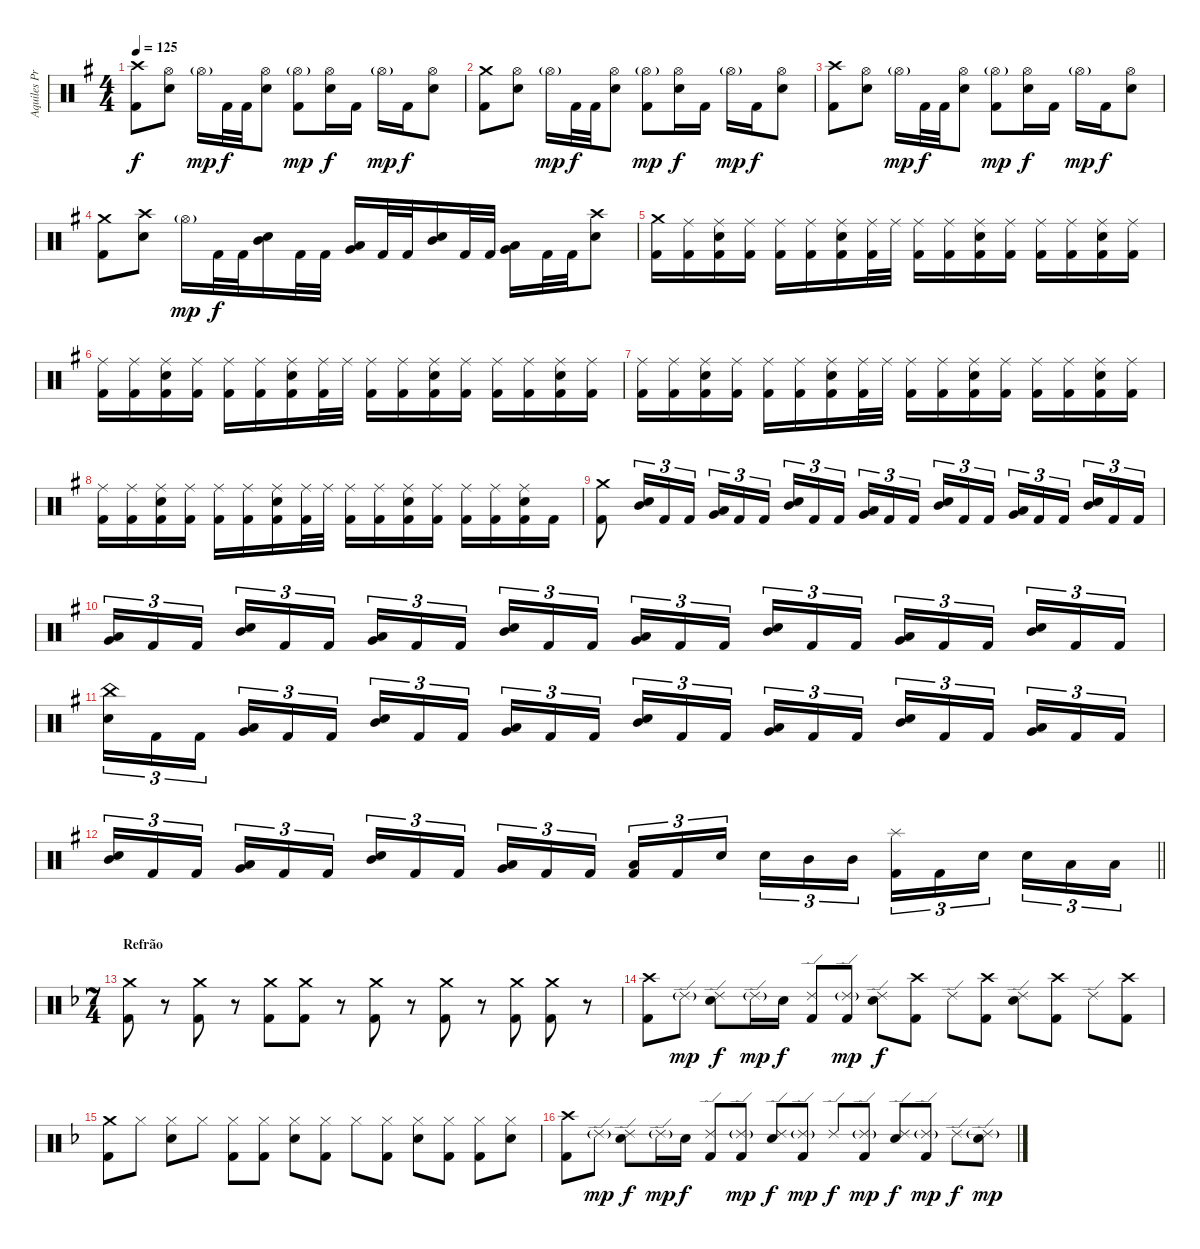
\track ("Aquiles Priester" "Aquiles Pr") {instrument percussion}
\staff {score}
\articulation defaults
\ts (4 4)
\tempo 125
\clef neutral
\ks eminor
("Crash high (hit)" "Kick (hit) 2").8{dy f} ("Hi-Hat (open)" "Electric Snare (hit)").8 "Hi-Hat (open)"{g}.16{dy mp} "Kick (hit) 2".32{dy f} "Kick (hit) 2".32 ("Hi-Hat (open)" "Electric Snare (hit)").8 ("Hi-Hat (open)"{g} "Kick (hit) 2").8{dy mp} ("Hi-Hat (open)" "Electric Snare (hit)").16{dy f} "Kick (hit) 2".16 "Hi-Hat (open)"{g}.16{dy mp} "Kick (hit) 2".16{dy f} ("Hi-Hat (open)" "Electric Snare (hit)").8 |
("Crash medium (hit)" "Kick (hit) 2").8 ("Hi-Hat (open)" "Electric Snare (hit)").8 "Hi-Hat (open)"{g}.16{dy mp} "Kick (hit) 2".32{dy f} "Kick (hit) 2".32 ("Hi-Hat (open)" "Electric Snare (hit)").8 ("Hi-Hat (open)"{g} "Kick (hit) 2").8{dy mp} ("Hi-Hat (open)" "Electric Snare (hit)").16{dy f} "Kick (hit) 2".16 "Hi-Hat (open)"{g}.16{dy mp} "Kick (hit) 2".16{dy f} ("Hi-Hat (open)" "Electric Snare (hit)").8 |
("Crash high (hit)" "Kick (hit) 2").8 ("Hi-Hat (open)" "Electric Snare (hit)").8 "Hi-Hat (open)"{g}.16{dy mp} "Kick (hit) 2".32{dy f} "Kick (hit) 2".32 ("Hi-Hat (open)" "Electric Snare (hit)").8 ("Hi-Hat (open)"{g} "Kick (hit) 2").8{dy mp} ("Hi-Hat (open)" "Electric Snare (hit)").16{dy f} "Kick (hit) 2".16 "Hi-Hat (open)"{g}.16{dy mp} "Kick (hit) 2".16{dy f} ("Hi-Hat (open)" "Electric Snare (hit)").8 |
("Crash medium (hit)" "Kick (hit) 2").8 ("Crash high (hit)" "Electric Snare (hit)").8 "Hi-Hat (open)"{g}.16{dy mp} "Kick (hit) 2".32{dy f} "Kick (hit) 2".32 ("Mid Tom (hit)" "Electric Snare (hit)").16 "Kick (hit) 2".32 "Kick (hit) 2".32 ("Very Low Tom (hit)" "Low Tom (hit)").16 "Kick (hit) 2".32 "Kick (hit) 2".32 ("Mid Tom (hit)" "Electric Snare (hit)").16 "Kick (hit) 2".32 "Kick (hit) 2".32 ("Very Low Tom (hit)" "Low Tom (hit)").16 "Kick (hit) 2".32 "Kick (hit) 2".32 ("Crash high (hit)" "Electric Snare (hit)").8 |
("Crash medium (hit)" "Kick (hit) 2").16 ("Ride (middle)" "Kick (hit) 2").16 ("Ride (middle)" "Electric Snare (hit)" "Kick (hit) 2").16 ("Ride (middle)" "Kick (hit) 2").16 ("Ride (middle)" "Kick (hit) 2").16 ("Ride (middle)" "Kick (hit) 2").16 ("Ride (middle)" "Electric Snare (hit)" "Kick (hit) 2").16 ("Ride (middle)" "Kick (hit) 2").32 "Ride (middle)".32 ("Ride (middle)" "Kick (hit) 2").16 ("Ride (middle)" "Kick (hit) 2").16 ("Ride (middle)" "Electric Snare (hit)" "Kick (hit) 2").16 ("Ride (middle)" "Kick (hit) 2").16 ("Ride (middle)" "Kick (hit) 2").16 ("Ride (middle)" "Kick (hit) 2").16 ("Ride (middle)" "Electric Snare (hit)" "Kick (hit) 2").16 ("Ride (middle)" "Kick (hit) 2").16 |
("Ride (middle)" "Kick (hit) 2").16 ("Ride (middle)" "Kick (hit) 2").16 ("Ride (middle)" "Electric Snare (hit)" "Kick (hit) 2").16 ("Ride (middle)" "Kick (hit) 2").16 ("Ride (middle)" "Kick (hit) 2").16 ("Ride (middle)" "Kick (hit) 2").16 ("Ride (middle)" "Electric Snare (hit)" "Kick (hit) 2").16 ("Ride (middle)" "Kick (hit) 2").32 "Ride (middle)".32 ("Ride (middle)" "Kick (hit) 2").16 ("Ride (middle)" "Kick (hit) 2").16 ("Ride (middle)" "Electric Snare (hit)" "Kick (hit) 2").16 ("Ride (middle)" "Kick (hit) 2").16 ("Ride (middle)" "Kick (hit) 2").16 ("Ride (middle)" "Kick (hit) 2").16 ("Ride (middle)" "Electric Snare (hit)" "Kick (hit) 2").16 ("Ride (middle)" "Kick (hit) 2").16 |
("Ride (middle)" "Kick (hit) 2").16 ("Ride (middle)" "Kick (hit) 2").16 ("Ride (middle)" "Electric Snare (hit)" "Kick (hit) 2").16 ("Ride (middle)" "Kick (hit) 2").16 ("Ride (middle)" "Kick (hit) 2").16 ("Ride (middle)" "Kick (hit) 2").16 ("Ride (middle)" "Electric Snare (hit)" "Kick (hit) 2").16 ("Ride (middle)" "Kick (hit) 2").32 "Ride (middle)".32 ("Ride (middle)" "Kick (hit) 2").16 ("Ride (middle)" "Kick (hit) 2").16 ("Ride (middle)" "Electric Snare (hit)" "Kick (hit) 2").16 ("Ride (middle)" "Kick (hit) 2").16 ("Ride (middle)" "Kick (hit) 2").16 ("Ride (middle)" "Kick (hit) 2").16 ("Ride (middle)" "Electric Snare (hit)" "Kick (hit) 2").16 ("Ride (middle)" "Kick (hit) 2").16 |
("Ride (middle)" "Kick (hit) 2").16 ("Ride (middle)" "Kick (hit) 2").16 ("Ride (middle)" "Electric Snare (hit)" "Kick (hit) 2").16 ("Ride (middle)" "Kick (hit) 2").16 ("Ride (middle)" "Kick (hit) 2").16 ("Ride (middle)" "Kick (hit) 2").16 ("Ride (middle)" "Electric Snare (hit)" "Kick (hit) 2").16 ("Ride (middle)" "Kick (hit) 2").32 "Ride (middle)".32 ("Ride (middle)" "Kick (hit) 2").16 ("Ride (middle)" "Kick (hit) 2").16 ("Ride (middle)" "Electric Snare (hit)" "Kick (hit) 2").16 ("Ride (middle)" "Kick (hit) 2").16 ("Ride (middle)" "Kick (hit) 2").16 ("Ride (middle)" "Kick (hit) 2").16 ("Ride (middle)" "Electric Snare (hit)" "Kick (hit) 2").16 "Kick (hit) 2".16 |
("Crash medium (hit)" "Kick (hit) 2").8 ("Mid Tom (hit)" "Electric Snare (hit)").16{tu (3 2)} "Kick (hit) 2".16{tu (3 2)} "Kick (hit) 2".16{tu (3 2)} ("Very Low Tom (hit)" "Low Tom (hit)").16{tu (3 2)} "Kick (hit) 2".16{tu (3 2)} "Kick (hit) 2".16{tu (3 2) beam splitsecondary} ("Mid Tom (hit)" "Electric Snare (hit)").16{tu (3 2)} "Kick (hit) 2".16{tu (3 2)} "Kick (hit) 2".16{tu (3 2)} ("Very Low Tom (hit)" "Low Tom (hit)").16{tu (3 2)} "Kick (hit) 2".16{tu (3 2)} "Kick (hit) 2".16{tu (3 2) beam splitsecondary} ("Mid Tom (hit)" "Electric Snare (hit)").16{tu (3 2)} "Kick (hit) 2".16{tu (3 2)} "Kick (hit) 2".16{tu (3 2)} ("Very Low Tom (hit)" "Low Tom (hit)").16{tu (3 2)} "Kick (hit) 2".16{tu (3 2)} "Kick (hit) 2".16{tu (3 2) beam splitsecondary} ("Mid Tom (hit)" "Electric Snare (hit)").16{tu (3 2)} "Kick (hit) 2".16{tu (3 2)} "Kick (hit) 2".16{tu (3 2)} |
("Very Low Tom (hit)" "Low Tom (hit)").16{tu (3 2)} "Kick (hit) 2".16{tu (3 2)} "Kick (hit) 2".16{tu (3 2) beam splitsecondary} ("Mid Tom (hit)" "Electric Snare (hit)").16{tu (3 2)} "Kick (hit) 2".16{tu (3 2)} "Kick (hit) 2".16{tu (3 2)} ("Very Low Tom (hit)" "Low Tom (hit)").16{tu (3 2)} "Kick (hit) 2".16{tu (3 2)} "Kick (hit) 2".16{tu (3 2) beam splitsecondary} ("Mid Tom (hit)" "Electric Snare (hit)").16{tu (3 2)} "Kick (hit) 2".16{tu (3 2)} "Kick (hit) 2".16{tu (3 2)} ("Very Low Tom (hit)" "Low Tom (hit)").16{tu (3 2)} "Kick (hit) 2".16{tu (3 2)} "Kick (hit) 2".16{tu (3 2) beam splitsecondary} ("Mid Tom (hit)" "Electric Snare (hit)").16{tu (3 2)} "Kick (hit) 2".16{tu (3 2)} "Kick (hit) 2".16{tu (3 2)} ("Very Low Tom (hit)" "Low Tom (hit)").16{tu (3 2)} "Kick (hit) 2".16{tu (3 2)} "Kick (hit) 2".16{tu (3 2) beam splitsecondary} ("Mid Tom (hit)" "Electric Snare (hit)").16{tu (3 2)} "Kick (hit) 2".16{tu (3 2)} "Kick (hit) 2".16{tu (3 2)} |
("China (hit)" "Electric Snare (hit)").16{tu (3 2)} "Kick (hit) 2".16{tu (3 2)} "Kick (hit) 2".16{tu (3 2) beam splitsecondary} ("Very Low Tom (hit)" "Low Tom (hit)").16{tu (3 2)} "Kick (hit) 2".16{tu (3 2)} "Kick (hit) 2".16{tu (3 2)} ("Mid Tom (hit)" "Electric Snare (hit)").16{tu (3 2)} "Kick (hit) 2".16{tu (3 2)} "Kick (hit) 2".16{tu (3 2) beam splitsecondary} ("Very Low Tom (hit)" "Low Tom (hit)").16{tu (3 2)} "Kick (hit) 2".16{tu (3 2)} "Kick (hit) 2".16{tu (3 2)} ("Mid Tom (hit)" "Electric Snare (hit)").16{tu (3 2)} "Kick (hit) 2".16{tu (3 2)} "Kick (hit) 2".16{tu (3 2) beam splitsecondary} ("Very Low Tom (hit)" "Low Tom (hit)").16{tu (3 2)} "Kick (hit) 2".16{tu (3 2)} "Kick (hit) 2".16{tu (3 2)} ("Mid Tom (hit)" "Electric Snare (hit)").16{tu (3 2)} "Kick (hit) 2".16{tu (3 2)} "Kick (hit) 2".16{tu (3 2) beam splitsecondary} ("Very Low Tom (hit)" "Low Tom (hit)").16{tu (3 2)} "Kick (hit) 2".16{tu (3 2)} "Kick (hit) 2".16{tu (3 2)} |
\barLineRight lightlight
("Mid Tom (hit)" "Electric Snare (hit)").16{tu (3 2)} "Kick (hit) 2".16{tu (3 2)} "Kick (hit) 2".16{tu (3 2) beam splitsecondary} ("Very Low Tom (hit)" "Low Tom (hit)").16{tu (3 2)} "Kick (hit) 2".16{tu (3 2)} "Kick (hit) 2".16{tu (3 2)} ("Mid Tom (hit)" "Electric Snare (hit)").16{tu (3 2)} "Kick (hit) 2".16{tu (3 2)} "Kick (hit) 2".16{tu (3 2) beam splitsecondary} ("Very Low Tom (hit)" "Low Tom (hit)").16{tu (3 2)} "Kick (hit) 2".16{tu (3 2)} "Kick (hit) 2".16{tu (3 2)} ("Low Tom (hit)" "Kick (hit) 2").16{tu (3 2)} "Kick (hit) 2".16{tu (3 2)} "Electric Snare (hit)".16{tu (3 2) beam splitsecondary} "Electric Snare (hit)".16{tu (3 2)} "Mid Tom (hit)".16{tu (3 2)} "Mid Tom (hit)".16{tu (3 2)} ("Splash (hit)" "Kick (hit) 2").16{tu (3 2)} "Kick (hit) 2".16{tu (3 2)} "Electric Snare (hit)".16{tu (3 2) beam splitsecondary} "Electric Snare (hit)".16{tu (3 2)} "Low Tom (hit)".16{tu (3 2)} "Low Tom (hit)".16{tu (3 2)} |
\ts (7 4)
\section ("" "Refrão")
\ks dminor
("Crash medium (hit)" "Kick (hit) 2").8 r.8{volume 0} ("Crash medium (hit)" "Kick (hit) 2").8{volume 16} r.8{volume 0} ("Crash medium (hit)" "Kick (hit) 2").8{volume 16} ("Crash medium (hit)" "Kick (hit) 2").8 r.8{volume 0} ("Crash medium (hit)" "Kick (hit) 2").8{volume 16} r.8{volume 0} ("Crash medium (hit)" "Kick (hit) 2").8{volume 16} r.8{volume 0} ("Crash medium (hit)" "Kick (hit) 2").8{volume 16} ("Crash medium (hit)" "Kick (hit) 2").8 r.8{volume 0} |
("Crash high (hit)" "Kick (hit) 2").8{volume 16} "Ride (edge) 2"{g}.8{dy mp} ("Ride (edge) 2" "Electric Snare (hit)").8{dy f} "Ride (edge) 2"{g}.16{dy mp} "Electric Snare (hit)".16{dy f} ("Ride (edge) 2" "Kick (hit) 2").8 ("Ride (edge) 2"{g} "Kick (hit) 2").8{dy mp} ("Ride (edge) 2" "Electric Snare (hit)").8{dy f} ("Crash high (hit)" "Kick (hit) 2").8 "Ride (edge) 2".8 ("Crash high (hit)" "Kick (hit) 2").8 ("Ride (edge) 2" "Electric Snare (hit)").8 ("Crash high (hit)" "Kick (hit) 2").8 "Ride (edge) 2".8 ("Crash high (hit)" "Kick (hit) 2").8 |
("Crash medium (hit)" "Kick (hit) 2").8 "Hi-Hat (closed)".8 ("Hi-Hat (closed)" "Electric Snare (hit)").8 "Hi-Hat (closed)".8 ("Hi-Hat (closed)" "Kick (hit) 2").8 ("Hi-Hat (closed)" "Kick (hit) 2").8 ("Hi-Hat (closed)" "Electric Snare (hit)").8 ("Hi-Hat (closed)" "Kick (hit) 2").8 "Hi-Hat (closed)".8 ("Hi-Hat (closed)" "Kick (hit) 2").8 ("Hi-Hat (closed)" "Electric Snare (hit)").8 ("Hi-Hat (closed)" "Kick (hit) 2").8 ("Hi-Hat (closed)" "Kick (hit) 2").8 ("Hi-Hat (closed)" "Electric Snare (hit)").8 |
("Crash high (hit)" "Kick (hit) 2").8 "Ride (edge) 2"{g}.8{dy mp} ("Ride (edge) 2" "Electric Snare (hit)").8{dy f} "Ride (edge) 2"{g}.16{dy mp} "Electric Snare (hit)".16{dy f} ("Ride (edge) 2" "Kick (hit) 2").8 ("Ride (edge) 2"{g} "Kick (hit) 2").8{dy mp} ("Ride (edge) 2" "Electric Snare (hit)").8{dy f} ("Ride (edge) 2"{g} "Kick (hit) 2").8{dy mp} "Ride (edge) 2".8{dy f} ("Ride (edge) 2"{g} "Kick (hit) 2").8{dy mp} ("Ride (edge) 2" "Electric Snare (hit)").8{dy f} ("Ride (edge) 2"{g} "Kick (hit) 2").8{dy mp} "Ride (edge) 2".8{dy f} ("Ride (edge) 2"{g} "Electric Snare (hit)").8{dy mp}
